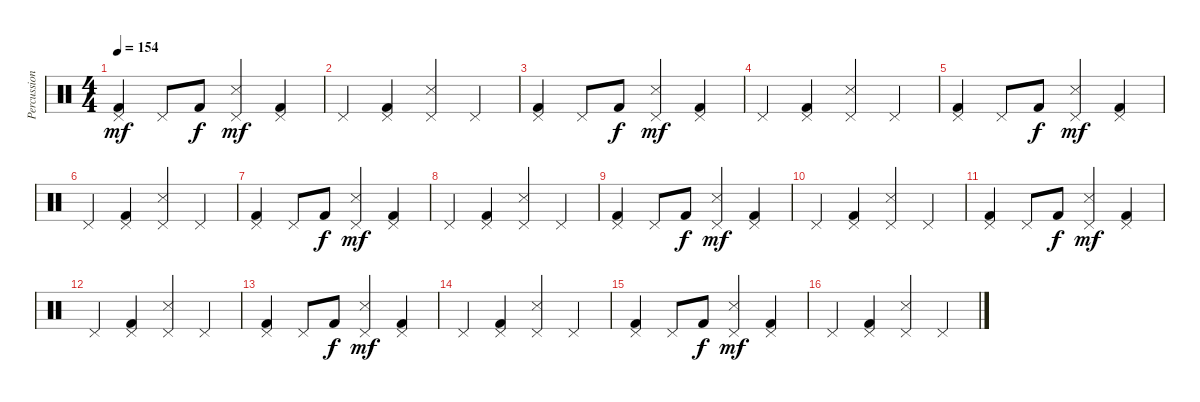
\track ("Percussion" "Percussion") {instrument percussion}
\staff {score}
\articulation defaults
\ts (4 4)
\tempo 154
\clef neutral
\ks c
("Kick (hit) 2" "Pedal Hi-Hat (hit)").4{dy mf} "Pedal Hi-Hat (hit)".8 "Kick (hit) 2".8{dy f} ("Snare (side stick) 3" "Pedal Hi-Hat (hit)").4{dy mf} ("Kick (hit) 2" "Pedal Hi-Hat (hit)").4 |
"Pedal Hi-Hat (hit)".4 ("Kick (hit) 2" "Pedal Hi-Hat (hit)").4 ("Snare (side stick) 3" "Pedal Hi-Hat (hit)").4 "Pedal Hi-Hat (hit)".4 |
("Kick (hit) 2" "Pedal Hi-Hat (hit)").4 "Pedal Hi-Hat (hit)".8 "Kick (hit) 2".8{dy f} ("Snare (side stick) 3" "Pedal Hi-Hat (hit)").4{dy mf} ("Kick (hit) 2" "Pedal Hi-Hat (hit)").4 |
"Pedal Hi-Hat (hit)".4 ("Kick (hit) 2" "Pedal Hi-Hat (hit)").4 ("Snare (side stick) 3" "Pedal Hi-Hat (hit)").4 "Pedal Hi-Hat (hit)".4 |
("Kick (hit) 2" "Pedal Hi-Hat (hit)").4 "Pedal Hi-Hat (hit)".8 "Kick (hit) 2".8{dy f} ("Snare (side stick) 3" "Pedal Hi-Hat (hit)").4{dy mf} ("Kick (hit) 2" "Pedal Hi-Hat (hit)").4 |
"Pedal Hi-Hat (hit)".4 ("Kick (hit) 2" "Pedal Hi-Hat (hit)").4 ("Snare (side stick) 3" "Pedal Hi-Hat (hit)").4 "Pedal Hi-Hat (hit)".4 |
("Kick (hit) 2" "Pedal Hi-Hat (hit)").4 "Pedal Hi-Hat (hit)".8 "Kick (hit) 2".8{dy f} ("Snare (side stick) 3" "Pedal Hi-Hat (hit)").4{dy mf} ("Kick (hit) 2" "Pedal Hi-Hat (hit)").4 |
"Pedal Hi-Hat (hit)".4 ("Kick (hit) 2" "Pedal Hi-Hat (hit)").4 ("Snare (side stick) 3" "Pedal Hi-Hat (hit)").4 "Pedal Hi-Hat (hit)".4 |
("Kick (hit) 2" "Pedal Hi-Hat (hit)").4 "Pedal Hi-Hat (hit)".8 "Kick (hit) 2".8{dy f} ("Snare (side stick) 3" "Pedal Hi-Hat (hit)").4{dy mf} ("Kick (hit) 2" "Pedal Hi-Hat (hit)").4 |
"Pedal Hi-Hat (hit)".4 ("Kick (hit) 2" "Pedal Hi-Hat (hit)").4 ("Snare (side stick) 3" "Pedal Hi-Hat (hit)").4 "Pedal Hi-Hat (hit)".4 |
("Kick (hit) 2" "Pedal Hi-Hat (hit)").4 "Pedal Hi-Hat (hit)".8 "Kick (hit) 2".8{dy f} ("Snare (side stick) 3" "Pedal Hi-Hat (hit)").4{dy mf} ("Kick (hit) 2" "Pedal Hi-Hat (hit)").4 |
"Pedal Hi-Hat (hit)".4 ("Kick (hit) 2" "Pedal Hi-Hat (hit)").4 ("Snare (side stick) 3" "Pedal Hi-Hat (hit)").4 "Pedal Hi-Hat (hit)".4 |
("Kick (hit) 2" "Pedal Hi-Hat (hit)").4 "Pedal Hi-Hat (hit)".8 "Kick (hit) 2".8{dy f} ("Snare (side stick) 3" "Pedal Hi-Hat (hit)").4{dy mf} ("Kick (hit) 2" "Pedal Hi-Hat (hit)").4 |
"Pedal Hi-Hat (hit)".4 ("Kick (hit) 2" "Pedal Hi-Hat (hit)").4 ("Snare (side stick) 3" "Pedal Hi-Hat (hit)").4 "Pedal Hi-Hat (hit)".4 |
("Kick (hit) 2" "Pedal Hi-Hat (hit)").4 "Pedal Hi-Hat (hit)".8 "Kick (hit) 2".8{dy f} ("Snare (side stick) 3" "Pedal Hi-Hat (hit)").4{dy mf} ("Kick (hit) 2" "Pedal Hi-Hat (hit)").4 |
"Pedal Hi-Hat (hit)".4 ("Kick (hit) 2" "Pedal Hi-Hat (hit)").4 ("Snare (side stick) 3" "Pedal Hi-Hat (hit)").4 "Pedal Hi-Hat (hit)".4
